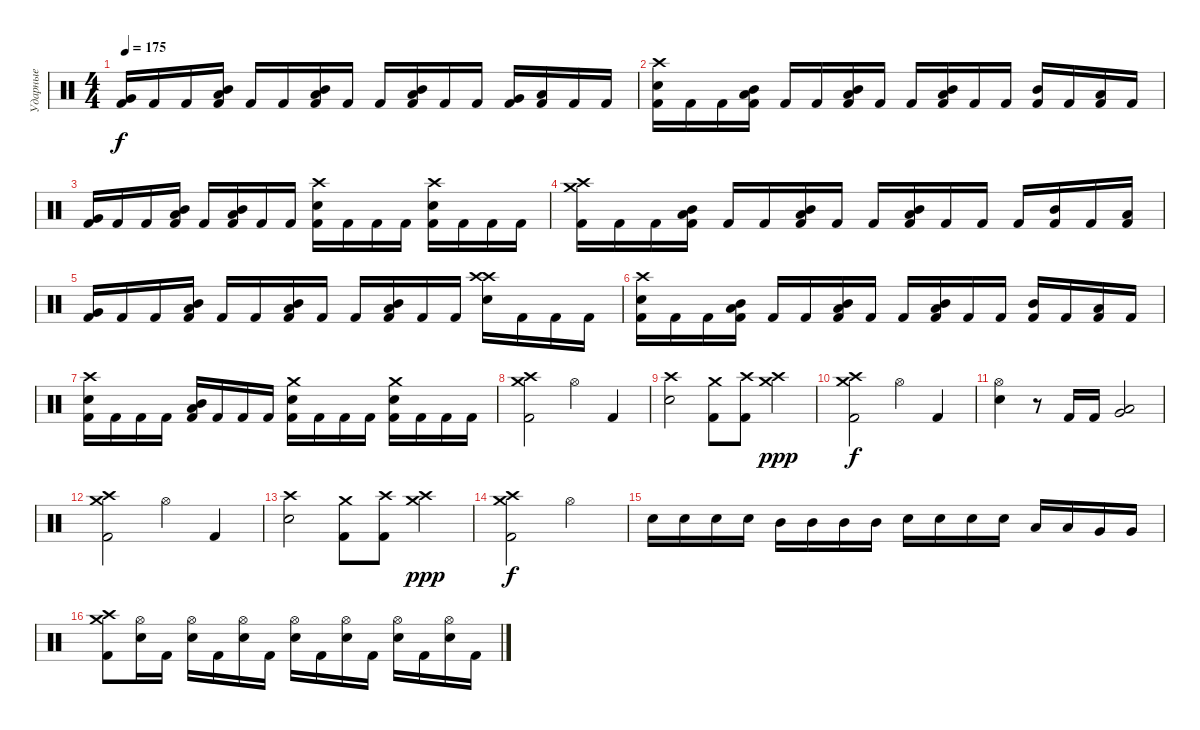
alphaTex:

\track ("Ударные" "Ударные") {instrument percussion}
\staff {score}
\articulation defaults
\ts (4 4)
\tempo 175
\clef neutral
\ks c
("Very Low Tom (hit)" "Kick (hit) 2").16{dy f} "Kick (hit) 2".16 "Kick (hit) 2".16 ("Mid Tom (hit)" "Low Tom (hit)" "Kick (hit) 2").16 "Kick (hit) 2".16 "Kick (hit) 2".16 ("Mid Tom (hit)" "Low Tom (hit)" "Kick (hit) 2").16 "Kick (hit) 2".16 "Kick (hit) 2".16 ("Mid Tom (hit)" "Low Tom (hit)" "Kick (hit) 2").16 "Kick (hit) 2".16 "Kick (hit) 2".16 ("Very Low Tom (hit)" "Kick (hit) 2").16 ("Low Floor Tom (hit)" "Kick (hit) 2").16 "Kick (hit) 2".16 "Kick (hit) 2".16 |
("Electric Snare (hit)" "Crash high (hit)" "Kick (hit) 2").16 "Kick (hit) 2".16 "Kick (hit) 2".16 ("Mid Tom (hit)" "Low Tom (hit)" "Kick (hit) 2").16 "Kick (hit) 2".16 "Kick (hit) 2".16 ("Mid Tom (hit)" "Low Tom (hit)" "Kick (hit) 2").16 "Kick (hit) 2".16 "Kick (hit) 2".16 ("Mid Tom (hit)" "Low Tom (hit)" "Kick (hit) 2").16 "Kick (hit) 2".16 "Kick (hit) 2".16 ("Mid Tom (hit)" "Kick (hit) 2").16 "Kick (hit) 2".16 ("Low Tom (hit)" "Kick (hit) 2").16 "Kick (hit) 2".16 |
("Very Low Tom (hit)" "Kick (hit) 2").16 "Kick (hit) 2".16 "Kick (hit) 2".16 ("Mid Tom (hit)" "Low Tom (hit)" "Kick (hit) 2").16 "Kick (hit) 2".16 ("Mid Tom (hit)" "Low Tom (hit)" "Kick (hit) 2").16 "Kick (hit) 2".16 "Kick (hit) 2".16 ("Crash high (hit)" "Electric Snare (hit)" "Kick (hit) 2").16 "Kick (hit) 2".16 "Kick (hit) 2".16 "Kick (hit) 2".16 ("Crash high (hit)" "Electric Snare (hit)" "Kick (hit) 2").16 "Kick (hit) 2".16 "Kick (hit) 2".16 "Kick (hit) 2".16 |
("Crash medium (hit)" "Crash high (hit)" "Kick (hit) 2").16 "Kick (hit) 2".16 "Kick (hit) 2".16 ("Mid Tom (hit)" "Low Tom (hit)" "Kick (hit) 2").16 "Kick (hit) 2".16 "Kick (hit) 2".16 ("Mid Tom (hit)" "Low Tom (hit)" "Kick (hit) 2").16 "Kick (hit) 2".16 "Kick (hit) 2".16 ("Mid Tom (hit)" "Low Tom (hit)" "Kick (hit) 2").16 "Kick (hit) 2".16 "Kick (hit) 2".16 "Kick (hit) 2".16 ("Mid Tom (hit)" "Kick (hit) 2").16 "Kick (hit) 2".16 ("Low Tom (hit)" "Kick (hit) 2").16 |
("Very Low Tom (hit)" "Kick (hit) 2").16 "Kick (hit) 2".16 "Kick (hit) 2".16 ("Mid Tom (hit)" "Low Tom (hit)" "Kick (hit) 2").16 "Kick (hit) 2".16 "Kick (hit) 2".16 ("Mid Tom (hit)" "Low Tom (hit)" "Kick (hit) 2").16 "Kick (hit) 2".16 "Kick (hit) 2".16 ("Mid Tom (hit)" "Low Tom (hit)" "Kick (hit) 2").16 "Kick (hit) 2".16 "Kick (hit) 2".16 ("Crash high (hit)" "Electric Snare (hit)" "Crash high (hit)").16 "Kick (hit) 2".16 "Kick (hit) 2".16 "Kick (hit) 2".16 |
("Electric Snare (hit)" "Crash high (hit)" "Kick (hit) 2").16 "Kick (hit) 2".16 "Kick (hit) 2".16 ("Mid Tom (hit)" "Low Tom (hit)" "Kick (hit) 2").16 "Kick (hit) 2".16 "Kick (hit) 2".16 ("Mid Tom (hit)" "Low Tom (hit)" "Kick (hit) 2").16 "Kick (hit) 2".16 "Kick (hit) 2".16 ("Mid Tom (hit)" "Low Tom (hit)" "Kick (hit) 2").16 "Kick (hit) 2".16 "Kick (hit) 2".16 ("Mid Tom (hit)" "Kick (hit) 2").16 "Kick (hit) 2".16 ("Low Tom (hit)" "Kick (hit) 2").16 "Kick (hit) 2".16 |
("Electric Snare (hit)" "Crash high (hit)" "Kick (hit) 2").16 "Kick (hit) 2".16 "Kick (hit) 2".16 "Kick (hit) 2".16 ("Mid Tom (hit)" "Low Tom (hit)" "Kick (hit) 2").16 "Kick (hit) 2".16 "Kick (hit) 2".16 "Kick (hit) 2".16 ("Crash medium (hit)" "Electric Snare (hit)" "Kick (hit) 2").16 "Kick (hit) 2".16 "Kick (hit) 2".16 "Kick (hit) 2".16 ("Crash medium (hit)" "Electric Snare (hit)" "Kick (hit) 2").16 "Kick (hit) 2".16 "Kick (hit) 2".16 "Kick (hit) 2".16 |
("Crash medium (hit)" "Crash high (hit)" "Kick (hit) 2").2 "Hi-Hat (open)".4 "Kick (hit) 2".4 |
("Crash high (hit)" "Electric Snare (hit)").2 ("Crash medium (hit)" "Kick (hit) 2").8 ("Crash high (hit)" "Kick (hit) 2").8 ("Crash medium (hit)" "Crash high (hit)").4{dy ppp} |
("Crash medium (hit)" "Crash high (hit)" "Kick (hit) 2").2{dy f} "Hi-Hat (open)".4 "Kick (hit) 2".4 |
("Hi-Hat (open)" "Electric Snare (hit)").4 r.8 "Kick (hit) 2".16 "Kick (hit) 2".16 ("Low Floor Tom (hit)" "Very Low Tom (hit)").2 |
("Crash medium (hit)" "Crash high (hit)" "Kick (hit) 2").2 "Hi-Hat (open)".4 "Kick (hit) 2".4 |
("Crash high (hit)" "Electric Snare (hit)").2 ("Crash medium (hit)" "Kick (hit) 2").8 ("Crash high (hit)" "Kick (hit) 2").8 ("Crash high (hit)" "Crash medium (hit)").4{dy ppp} |
("Crash medium (hit)" "Crash high (hit)" "Kick (hit) 2").2{dy f} "Hi-Hat (open)".2 |
"Electric Snare (hit)".16 "Electric Snare (hit)".16 "Electric Snare (hit)".16 "Electric Snare (hit)".16 "Mid Tom (hit)".16 "Mid Tom (hit)".16 "Mid Tom (hit)".16 "Mid Tom (hit)".16 "Electric Snare (hit)".16 "Electric Snare (hit)".16 "Electric Snare (hit)".16 "Electric Snare (hit)".16 "Low Tom (hit)".16 "Low Tom (hit)".16 "Very Low Tom (hit)".16 "Very Low Tom (hit)".16 |
("Crash medium (hit)" "Crash high (hit)" "Kick (hit) 2").8 ("Electric Snare (hit)" "Hi-Hat (open)").16 "Kick (hit) 2".16 ("Electric Snare (hit)" "Hi-Hat (open)").16 "Kick (hit) 2".16 ("Electric Snare (hit)" "Hi-Hat (open)").16 "Kick (hit) 2".16 ("Electric Snare (hit)" "Hi-Hat (open)").16 "Kick (hit) 2".16 ("Electric Snare (hit)" "Hi-Hat (open)").16 "Kick (hit) 2".16 ("Electric Snare (hit)" "Hi-Hat (open)").16 "Kick (hit) 2".16 ("Electric Snare (hit)" "Hi-Hat (open)").16 "Kick (hit) 2".16
